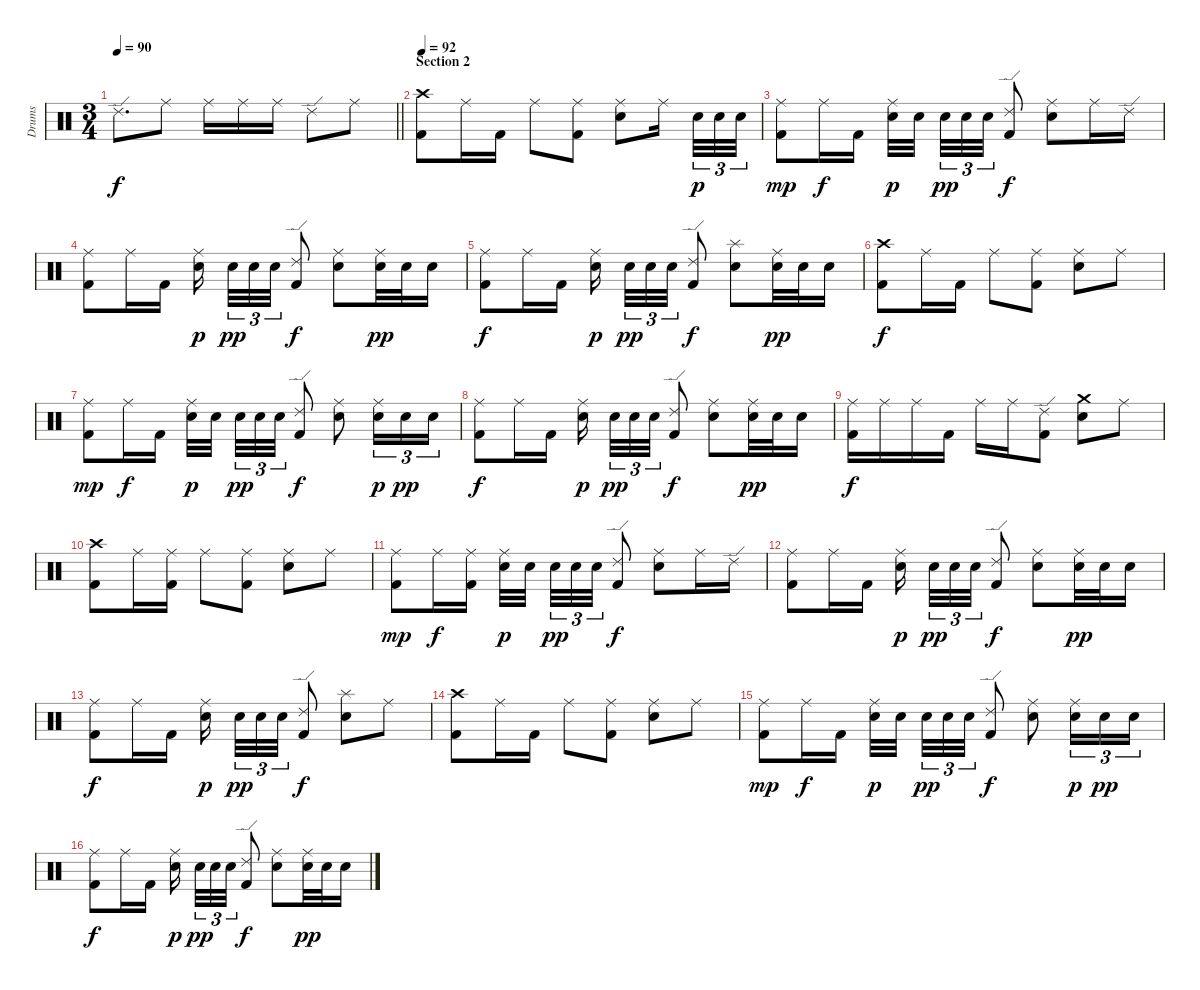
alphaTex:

\track ("Drums" "Drums") {instrument percussion}
\staff {score}
\articulation defaults
\ts (3 4)
\tempo 90
\clef neutral
\barLineRight lightlight
\ks c "Ride (edge) 2".8{d dy f} "Ride (middle)".8 "Ride (middle)".16 "Ride (middle)".16 "Ride (middle)".16 "Ride (edge) 2".8 "Ride (middle)".8
|
\section ("" "Section 2")
\tempo 92
("Crash high (hit)" "Kick (hit) 2").8 "Ride (middle)".16 "Kick (hit) 2".16 "Ride (middle)".8 ("Ride (middle)" "Kick (hit) 2").8 ("Ride (middle)" "Electric Snare (hit)").8 "Ride (middle)".16{beam splitsecondary} "Electric Snare (hit)".32{tu (3 2) dy p} "Electric Snare (hit)".32{tu (3 2)} "Electric Snare (hit)".32{tu (3 2)} |
("Ride (middle)" "Kick (hit) 2").8{dy mp} "Ride (middle)".16{dy f} "Kick (hit) 2".16 ("Ride (middle)" "Electric Snare (hit)").32{dy p} "Electric Snare (hit)".32{beam splitsecondary} "Electric Snare (hit)".32{tu (3 2) dy pp} "Electric Snare (hit)".32{tu (3 2)} "Electric Snare (hit)".32{tu (3 2)} ("Ride (edge) 2" "Kick (hit) 2").8{dy f} ("Ride (middle)" "Electric Snare (hit)").8 "Ride (middle)".16 "Ride (edge) 2".16 |
("Ride (middle)" "Kick (hit) 2").8 "Ride (middle)".16 "Kick (hit) 2".16 ("Ride (middle)" "Electric Snare (hit)").16{dy p beam splitsecondary} "Electric Snare (hit)".32{tu (3 2) dy pp} "Electric Snare (hit)".32{tu (3 2)} "Electric Snare (hit)".32{tu (3 2)} ("Ride (edge) 2" "Kick (hit) 2").8{dy f} ("Ride (middle)" "Electric Snare (hit)").8 ("Ride (middle)" "Electric Snare (hit)").32{dy pp} "Electric Snare (hit)".32 "Electric Snare (hit)".16 |
("Ride (middle)" "Kick (hit) 2").8{dy f} "Ride (middle)".16 "Kick (hit) 2".16 ("Ride (middle)" "Electric Snare (hit)").16{dy p beam splitsecondary} "Electric Snare (hit)".32{tu (3 2) dy pp} "Electric Snare (hit)".32{tu (3 2)} "Electric Snare (hit)".32{tu (3 2)} ("Ride (edge) 2" "Kick (hit) 2").8{dy f} ("Splash (hit)" "Electric Snare (hit)").8 ("Ride (middle)" "Electric Snare (hit)").32{dy pp} "Electric Snare (hit)".32 "Electric Snare (hit)".16 |
("Crash high (hit)" "Kick (hit) 2").8{dy f} "Ride (middle)".16 "Kick (hit) 2".16 "Ride (middle)".8 ("Ride (middle)" "Kick (hit) 2").8 ("Ride (middle)" "Electric Snare (hit)").8 "Ride (middle)".8 |
("Ride (middle)" "Kick (hit) 2").8{dy mp} "Ride (middle)".16{dy f} "Kick (hit) 2".16 ("Ride (middle)" "Electric Snare (hit)").32{dy p} "Electric Snare (hit)".32{beam splitsecondary} "Electric Snare (hit)".32{tu (3 2) dy pp} "Electric Snare (hit)".32{tu (3 2)} "Electric Snare (hit)".32{tu (3 2)} ("Ride (edge) 2" "Kick (hit) 2").8{dy f} ("Ride (middle)" "Electric Snare (hit)").8 ("Ride (middle)" "Electric Snare (hit)").16{tu (3 2) dy p} "Electric Snare (hit)".16{tu (3 2) dy pp} "Electric Snare (hit)".16{tu (3 2)} |
("Ride (middle)" "Kick (hit) 2").8{dy f} "Ride (middle)".16 "Kick (hit) 2".16 ("Ride (middle)" "Electric Snare (hit)").16{dy p beam splitsecondary} "Electric Snare (hit)".32{tu (3 2) dy pp} "Electric Snare (hit)".32{tu (3 2)} "Electric Snare (hit)".32{tu (3 2)} ("Ride (edge) 2" "Kick (hit) 2").8{dy f} ("Ride (middle)" "Electric Snare (hit)").8 ("Ride (middle)" "Electric Snare (hit)").32{dy pp} "Electric Snare (hit)".32 "Electric Snare (hit)".16 |
("Ride (middle)" "Kick (hit) 2").16{dy f} "Ride (middle)".16 "Ride (middle)".16 "Kick (hit) 2".16 "Ride (middle)".16 "Ride (middle)".16 ("Ride (edge) 2" "Kick (hit) 2").8 ("Crash medium (hit)" "Electric Snare (hit)").8 "Ride (middle)".8 |
("Crash high (hit)" "Kick (hit) 2").8 "Ride (middle)".16 ("Ride (middle)" "Kick (hit) 2").16 "Ride (middle)".8 ("Ride (middle)" "Kick (hit) 2").8 ("Ride (middle)" "Electric Snare (hit)").8 "Ride (middle)".8 |
("Ride (middle)" "Kick (hit) 2").8{dy mp} "Ride (middle)".16{dy f} ("Ride (middle)" "Kick (hit) 2").16 ("Ride (middle)" "Electric Snare (hit)").32{dy p} "Electric Snare (hit)".32{beam splitsecondary} "Electric Snare (hit)".32{tu (3 2) dy pp} "Electric Snare (hit)".32{tu (3 2)} "Electric Snare (hit)".32{tu (3 2)} ("Ride (edge) 2" "Kick (hit) 2").8{dy f} ("Ride (middle)" "Electric Snare (hit)").8 "Ride (middle)".16 "Ride (edge) 2".16 |
("Ride (middle)" "Kick (hit) 2").8 "Ride (middle)".16 "Kick (hit) 2".16 ("Ride (middle)" "Electric Snare (hit)").16{dy p beam splitsecondary} "Electric Snare (hit)".32{tu (3 2) dy pp} "Electric Snare (hit)".32{tu (3 2)} "Electric Snare (hit)".32{tu (3 2)} ("Ride (edge) 2" "Kick (hit) 2").8{dy f} ("Ride (middle)" "Electric Snare (hit)").8 ("Ride (middle)" "Electric Snare (hit)").32{dy pp} "Electric Snare (hit)".32 "Electric Snare (hit)".16 |
("Ride (middle)" "Kick (hit) 2").8{dy f} "Ride (middle)".16 "Kick (hit) 2".16 ("Ride (middle)" "Electric Snare (hit)").16{dy p beam splitsecondary} "Electric Snare (hit)".32{tu (3 2) dy pp} "Electric Snare (hit)".32{tu (3 2)} "Electric Snare (hit)".32{tu (3 2)} ("Ride (edge) 2" "Kick (hit) 2").8{dy f} ("Splash (hit)" "Electric Snare (hit)").8 "Ride (middle)".8 |
("Crash high (hit)" "Kick (hit) 2").8 "Ride (middle)".16 "Kick (hit) 2".16 "Ride (middle)".8 ("Ride (middle)" "Kick (hit) 2").8 ("Ride (middle)" "Electric Snare (hit)").8 "Ride (middle)".8 |
("Ride (middle)" "Kick (hit) 2").8{dy mp} "Ride (middle)".16{dy f} "Kick (hit) 2".16 ("Ride (middle)" "Electric Snare (hit)").32{dy p} "Electric Snare (hit)".32{beam splitsecondary} "Electric Snare (hit)".32{tu (3 2) dy pp} "Electric Snare (hit)".32{tu (3 2)} "Electric Snare (hit)".32{tu (3 2)} ("Ride (edge) 2" "Kick (hit) 2").8{dy f} ("Ride (middle)" "Electric Snare (hit)").8 ("Ride (middle)" "Electric Snare (hit)").16{tu (3 2) dy p} "Electric Snare (hit)".16{tu (3 2) dy pp} "Electric Snare (hit)".16{tu (3 2)} |
("Ride (middle)" "Kick (hit) 2").8{dy f} "Ride (middle)".16 "Kick (hit) 2".16 ("Ride (middle)" "Electric Snare (hit)").16{dy p beam splitsecondary} "Electric Snare (hit)".32{tu (3 2) dy pp} "Electric Snare (hit)".32{tu (3 2)} "Electric Snare (hit)".32{tu (3 2)} ("Ride (edge) 2" "Kick (hit) 2").8{dy f} ("Ride (middle)" "Electric Snare (hit)").8 ("Ride (middle)" "Electric Snare (hit)").32{dy pp} "Electric Snare (hit)".32 "Electric Snare (hit)".16
